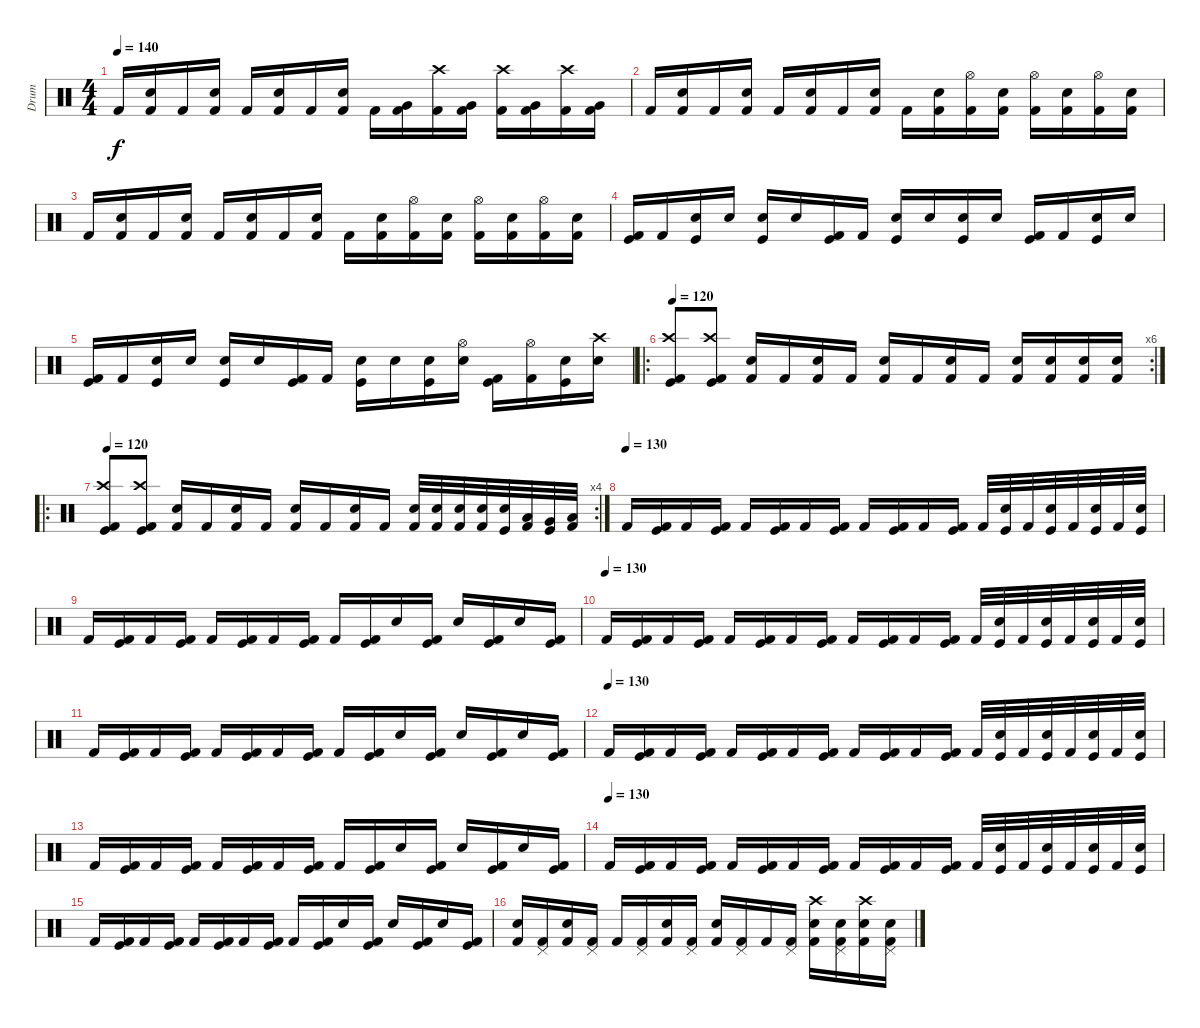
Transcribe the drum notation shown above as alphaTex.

\track ("Drum" "Drum") {instrument percussion}
\staff {score}
\articulation defaults
\ts (4 4)
\tempo 140
\clef neutral
\ks c "Kick (hit) 2".16{dy f}
("Electric Snare (hit)" "Kick (hit) 2").16 "Kick (hit) 2".16 ("Electric Snare (hit)" "Kick (hit) 2").16 "Kick (hit) 2".16 ("Electric Snare (hit)" "Kick (hit) 2").16 "Kick (hit) 2".16 ("Electric Snare (hit)" "Kick (hit) 2").16 "Kick (hit) 2".16 ("Very Low Tom (hit)" "Kick (hit) 2").16 ("Crash high (hit)" "Kick (hit) 2").16 ("Very Low Tom (hit)" "Kick (hit) 2").16 ("Crash high (hit)" "Kick (hit) 2").16 ("Very Low Tom (hit)" "Kick (hit) 2").16 ("Crash high (hit)" "Kick (hit) 2").16 ("Very Low Tom (hit)" "Kick (hit) 2").16 |
"Kick (hit) 2".16 ("Electric Snare (hit)" "Kick (hit) 2").16 "Kick (hit) 2".16 ("Electric Snare (hit)" "Kick (hit) 2").16 "Kick (hit) 2".16 ("Electric Snare (hit)" "Kick (hit) 2").16 "Kick (hit) 2".16 ("Electric Snare (hit)" "Kick (hit) 2").16 "Kick (hit) 2".16 ("Snare (hit) 2" "Kick (hit) 2").16 ("Hi-Hat (open)" "Kick (hit) 2").16 ("Snare (hit) 2" "Kick (hit) 2").16 ("Hi-Hat (open)" "Kick (hit) 2").16 ("Snare (hit) 2" "Kick (hit) 2").16 ("Hi-Hat (open)" "Kick (hit) 2").16 ("Snare (hit) 2" "Kick (hit) 2").16 |
"Kick (hit) 2".16 ("Electric Snare (hit)" "Kick (hit) 2").16 "Kick (hit) 2".16 ("Electric Snare (hit)" "Kick (hit) 2").16 "Kick (hit) 2".16 ("Electric Snare (hit)" "Kick (hit) 2").16 "Kick (hit) 2".16 ("Electric Snare (hit)" "Kick (hit) 2").16 "Kick (hit) 2".16 ("Snare (hit) 2" "Kick (hit) 2").16 ("Hi-Hat (open)" "Kick (hit) 2").16 ("Snare (hit) 2" "Kick (hit) 2").16 ("Hi-Hat (open)" "Kick (hit) 2").16 ("Snare (hit) 2" "Kick (hit) 2").16 ("Hi-Hat (open)" "Kick (hit) 2").16 ("Snare (hit) 2" "Kick (hit) 2").16 |
("Kick (hit)" "Kick (hit) 2").16 "Kick (hit) 2".16 ("Kick (hit)" "Snare (hit) 2").16 "Snare (hit) 2".16 ("Kick (hit)" "Electric Snare (hit)").16 "Electric Snare (hit)".16 ("Kick (hit)" "Kick (hit) 2").16 "Kick (hit) 2".16 ("Kick (hit)" "Snare (hit) 2").16 "Snare (hit) 2".16 ("Kick (hit)" "Electric Snare (hit)").16 "Electric Snare (hit)".16 ("Kick (hit)" "Kick (hit) 2").16 "Kick (hit) 2".16 ("Kick (hit)" "Snare (hit) 2").16 "Snare (hit) 2".16 |
("Kick (hit)" "Kick (hit) 2").16 "Kick (hit) 2".16 ("Kick (hit)" "Snare (hit) 2").16 "Snare (hit) 2".16 ("Kick (hit)" "Electric Snare (hit)").16 "Electric Snare (hit)".16 ("Kick (hit)" "Kick (hit) 2").16 "Kick (hit) 2".16 ("Kick (hit)" "Snare (hit) 2").16 "Snare (hit) 2".16 ("Kick (hit)" "Electric Snare (hit)").16 ("Hi-Hat (open)" "Electric Snare (hit)").16 ("Kick (hit)" "Kick (hit) 2").16 ("Hi-Hat (open)" "Kick (hit) 2").16 ("Kick (hit)" "Snare (hit) 2").16 ("Crash high (hit)" "Snare (hit) 2").16 |
\ro
\rc 6
\tempo 120
("Crash high (hit)" "Kick (hit)" "Kick (hit) 2").8 ("Crash high (hit)" "Kick (hit)" "Kick (hit) 2").8 ("Snare (hit) 2" "Kick (hit) 2").16 "Kick (hit) 2".16 ("Snare (hit) 2" "Kick (hit) 2").16 "Kick (hit) 2".16 ("Snare (hit) 2" "Kick (hit) 2").16 "Kick (hit) 2".16 ("Snare (hit) 2" "Kick (hit) 2").16 "Kick (hit) 2".16 ("Snare (hit) 2" "Kick (hit) 2").16 ("Electric Snare (hit)" "Kick (hit) 2").16 ("Snare (hit) 2" "Kick (hit) 2").16 ("Electric Snare (hit)" "Kick (hit) 2").16 |
\ro
\rc 4
\tempo 120
("Crash high (hit)" "Kick (hit)" "Kick (hit) 2").8 ("Crash high (hit)" "Kick (hit)" "Kick (hit) 2").8 ("Snare (hit) 2" "Kick (hit) 2").16 "Kick (hit) 2".16 ("Snare (hit) 2" "Kick (hit) 2").16 "Kick (hit) 2".16 ("Snare (hit) 2" "Kick (hit) 2").16 "Kick (hit) 2".16 ("Snare (hit) 2" "Kick (hit) 2").16 "Kick (hit) 2".16 ("Snare (hit) 2" "Kick (hit) 2").32 ("Electric Snare (hit)" "Kick (hit) 2").32 ("Snare (hit) 2" "Kick (hit) 2").32 ("Electric Snare (hit)" "Kick (hit) 2").32 ("Snare (hit) 2" "Kick (hit)").32 ("Low Floor Tom (hit)" "Kick (hit) 2").32 ("Very Low Tom (hit)" "Kick (hit)").32 ("Low Tom (hit)" "Kick (hit) 2").32 |
\tempo (130)
"Kick (hit) 2".16 ("Kick (hit)" "Kick (hit) 2").16 "Kick (hit) 2".16 ("Kick (hit)" "Kick (hit) 2").16 "Kick (hit) 2".16 ("Kick (hit)" "Kick (hit) 2").16 "Kick (hit) 2".16 ("Kick (hit)" "Kick (hit) 2").16 "Kick (hit) 2".16 ("Kick (hit)" "Kick (hit) 2").16 "Kick (hit) 2".16 ("Kick (hit)" "Kick (hit) 2").16 "Kick (hit) 2".32 ("Electric Snare (hit)" "Kick (hit)").32 "Kick (hit) 2".32 ("Electric Snare (hit)" "Kick (hit)").32 "Kick (hit) 2".32 ("Electric Snare (hit)" "Kick (hit)").32 "Kick (hit) 2".32 ("Electric Snare (hit)" "Kick (hit)").32 |
"Kick (hit) 2".16 ("Kick (hit)" "Kick (hit) 2").16 "Kick (hit) 2".16 ("Kick (hit)" "Kick (hit) 2").16 "Kick (hit) 2".16 ("Kick (hit)" "Kick (hit) 2").16 "Kick (hit) 2".16 ("Kick (hit)" "Kick (hit) 2").16 "Kick (hit) 2".16 ("Kick (hit)" "Kick (hit) 2").16 "Snare (hit) 2".16 ("Kick (hit)" "Kick (hit) 2").16 "Snare (hit) 2".16 ("Kick (hit)" "Kick (hit) 2").16 "Snare (hit) 2".16 ("Kick (hit)" "Kick (hit) 2").16 |
\tempo (130)
"Kick (hit) 2".16 ("Kick (hit)" "Kick (hit) 2").16 "Kick (hit) 2".16 ("Kick (hit)" "Kick (hit) 2").16 "Kick (hit) 2".16 ("Kick (hit)" "Kick (hit) 2").16 "Kick (hit) 2".16 ("Kick (hit)" "Kick (hit) 2").16 "Kick (hit) 2".16 ("Kick (hit)" "Kick (hit) 2").16 "Kick (hit) 2".16 ("Kick (hit)" "Kick (hit) 2").16 "Kick (hit) 2".32 ("Electric Snare (hit)" "Kick (hit)").32 "Kick (hit) 2".32 ("Electric Snare (hit)" "Kick (hit)").32 "Kick (hit) 2".32 ("Electric Snare (hit)" "Kick (hit)").32 "Kick (hit) 2".32 ("Electric Snare (hit)" "Kick (hit)").32 |
"Kick (hit) 2".16 ("Kick (hit)" "Kick (hit) 2").16 "Kick (hit) 2".16 ("Kick (hit)" "Kick (hit) 2").16 "Kick (hit) 2".16 ("Kick (hit)" "Kick (hit) 2").16 "Kick (hit) 2".16 ("Kick (hit)" "Kick (hit) 2").16 "Kick (hit) 2".16 ("Kick (hit)" "Kick (hit) 2").16 "Snare (hit) 2".16 ("Kick (hit)" "Kick (hit) 2").16 "Snare (hit) 2".16 ("Kick (hit)" "Kick (hit) 2").16 "Snare (hit) 2".16 ("Kick (hit)" "Kick (hit) 2").16 |
\tempo (130)
"Kick (hit) 2".16 ("Kick (hit)" "Kick (hit) 2").16 "Kick (hit) 2".16 ("Kick (hit)" "Kick (hit) 2").16 "Kick (hit) 2".16 ("Kick (hit)" "Kick (hit) 2").16 "Kick (hit) 2".16 ("Kick (hit)" "Kick (hit) 2").16 "Kick (hit) 2".16 ("Kick (hit)" "Kick (hit) 2").16 "Kick (hit) 2".16 ("Kick (hit)" "Kick (hit) 2").16 "Kick (hit) 2".32 ("Electric Snare (hit)" "Kick (hit)").32 "Kick (hit) 2".32 ("Electric Snare (hit)" "Kick (hit)").32 "Kick (hit) 2".32 ("Electric Snare (hit)" "Kick (hit)").32 "Kick (hit) 2".32 ("Electric Snare (hit)" "Kick (hit)").32 |
"Kick (hit) 2".16 ("Kick (hit)" "Kick (hit) 2").16 "Kick (hit) 2".16 ("Kick (hit)" "Kick (hit) 2").16 "Kick (hit) 2".16 ("Kick (hit)" "Kick (hit) 2").16 "Kick (hit) 2".16 ("Kick (hit)" "Kick (hit) 2").16 "Kick (hit) 2".16 ("Kick (hit)" "Kick (hit) 2").16 "Snare (hit) 2".16 ("Kick (hit)" "Kick (hit) 2").16 "Snare (hit) 2".16 ("Kick (hit)" "Kick (hit) 2").16 "Snare (hit) 2".16 ("Kick (hit)" "Kick (hit) 2").16 |
\tempo (130)
"Kick (hit) 2".16 ("Kick (hit)" "Kick (hit) 2").16 "Kick (hit) 2".16 ("Kick (hit)" "Kick (hit) 2").16 "Kick (hit) 2".16 ("Kick (hit)" "Kick (hit) 2").16 "Kick (hit) 2".16 ("Kick (hit)" "Kick (hit) 2").16 "Kick (hit) 2".16 ("Kick (hit)" "Kick (hit) 2").16 "Kick (hit) 2".16 ("Kick (hit)" "Kick (hit) 2").16 "Kick (hit) 2".32 ("Electric Snare (hit)" "Kick (hit)").32 "Kick (hit) 2".32 ("Electric Snare (hit)" "Kick (hit)").32 "Kick (hit) 2".32 ("Electric Snare (hit)" "Kick (hit)").32 "Kick (hit) 2".32 ("Electric Snare (hit)" "Kick (hit)").32 |
"Kick (hit) 2".16 ("Kick (hit)" "Kick (hit) 2").16 "Kick (hit) 2".16 ("Kick (hit)" "Kick (hit) 2").16 "Kick (hit) 2".16 ("Kick (hit)" "Kick (hit) 2").16 "Kick (hit) 2".16 ("Kick (hit)" "Kick (hit) 2").16 "Kick (hit) 2".16 ("Kick (hit)" "Kick (hit) 2").16 "Snare (hit) 2".16 ("Kick (hit)" "Kick (hit) 2").16 "Snare (hit) 2".16 ("Kick (hit)" "Kick (hit) 2").16 "Snare (hit) 2".16 ("Kick (hit)" "Kick (hit) 2").16 |
("Electric Snare (hit)" "Kick (hit) 2").16 ("Pedal Hi-Hat (hit)" "Kick (hit) 2").16 ("Electric Snare (hit)" "Kick (hit) 2").16 ("Pedal Hi-Hat (hit)" "Kick (hit) 2").16 "Kick (hit) 2".16 ("Pedal Hi-Hat (hit)" "Kick (hit) 2").16 ("Electric Snare (hit)" "Kick (hit) 2").16 ("Pedal Hi-Hat (hit)" "Kick (hit) 2").16 ("Electric Snare (hit)" "Kick (hit) 2").16 ("Pedal Hi-Hat (hit)" "Kick (hit) 2").16 "Kick (hit) 2".16 ("Pedal Hi-Hat (hit)" "Kick (hit) 2").16 ("Crash high (hit)" "Electric Snare (hit)" "Kick (hit) 2").16 ("Pedal Hi-Hat (hit)" "Electric Snare (hit)" "Kick (hit) 2").16 ("Crash high (hit)" "Electric Snare (hit)" "Kick (hit) 2").16 ("Pedal Hi-Hat (hit)" "Electric Snare (hit)" "Kick (hit) 2").16
